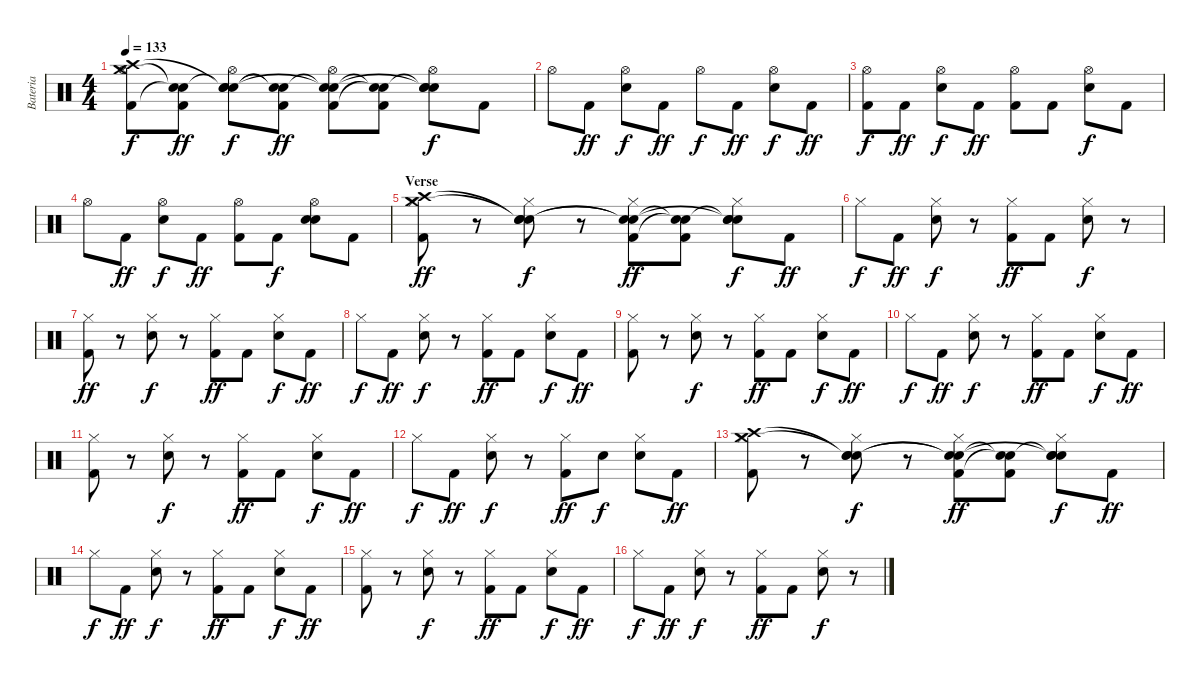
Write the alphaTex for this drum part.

\track ("Bateria" "Bateria") {instrument percussion}
\staff {score}
\articulation defaults
\ts (4 4)
\tempo 133
\clef neutral
\ks c
("Hi-Hat (open)" "Kick (hit) 2" "Crash medium (hit)" "Crash high (hit)").8{dy f} ("Kick (hit) 2" "Snare (hit)"{t} "Snare (hit)"{t}).8{dy ff} ("Hi-Hat (open)" "Snare (hit) 2" "Snare (hit)"{t} "Snare (hit)"{t}).8{dy f} ("Kick (hit) 2" "Snare (hit)"{t} "Snare (hit)"{t}).8{dy ff} ("Hi-Hat (open)" "Kick (hit) 2" "Snare (hit)"{t} "Snare (hit)"{t}).8 ("Kick (hit) 2" "Snare (hit)"{t} "Snare (hit)"{t}).8 ("Hi-Hat (open)" "Snare (hit) 2" "Snare (hit)"{t} "Snare (hit)"{t}).8{dy f} "Kick (hit) 2".8 |
"Hi-Hat (open)".8 "Kick (hit) 2".8{dy ff} ("Hi-Hat (open)" "Snare (hit) 2").8{dy f} "Kick (hit) 2".8{dy ff} "Hi-Hat (open)".8{dy f} "Kick (hit) 2".8{dy ff} ("Hi-Hat (open)" "Snare (hit) 2").8{dy f} "Kick (hit) 2".8{dy ff} |
("Hi-Hat (open)" "Kick (hit) 2").8{dy f} "Kick (hit) 2".8{dy ff} ("Hi-Hat (open)" "Snare (hit) 2").8{dy f} "Kick (hit) 2".8{dy ff} ("Hi-Hat (open)" "Kick (hit) 2").8 "Kick (hit) 2".8 ("Hi-Hat (open)" "Snare (hit) 2").8{dy f} "Kick (hit) 2".8 |
"Hi-Hat (open)".8 "Kick (hit) 2".8{dy ff} ("Hi-Hat (open)" "Snare (hit) 2").8{dy f} "Kick (hit) 2".8{dy ff} ("Hi-Hat (open)" "Kick (hit) 2").8 "Kick (hit) 2".8{dy f} ("Hi-Hat (open)" "Snare (hit) 2" "Snare (hit) 2").8 "Kick (hit) 2".8 |
\section ("" "Verse")
("Hi-Hat (closed)" "Kick (hit) 2" "Crash medium (hit)" "Crash high (hit)").8{dy ff} r.8 ("Hi-Hat (closed)" "Snare (hit) 2" "Snare (hit)"{t} "Snare (hit)"{t}).8{dy f} r.8 ("Hi-Hat (closed)" "Kick (hit) 2" "Snare (hit)"{t} "Snare (hit)"{t}).8{dy ff} ("Kick (hit) 2" "Snare (hit)"{t} "Snare (hit)"{t}).8 ("Hi-Hat (closed)" "Snare (hit) 2" "Snare (hit)"{t} "Snare (hit)"{t}).8{dy f} "Kick (hit) 2".8{dy ff} |
"Hi-Hat (closed)".8{dy f} "Kick (hit) 2".8{dy ff} ("Hi-Hat (closed)" "Snare (hit) 2").8{dy f} r.8 ("Hi-Hat (closed)" "Kick (hit) 2").8{dy ff} "Kick (hit) 2".8 ("Hi-Hat (closed)" "Snare (hit) 2").8{dy f} r.8 |
("Hi-Hat (closed)" "Kick (hit) 2").8{dy ff} r.8 ("Hi-Hat (closed)" "Snare (hit) 2").8{dy f} r.8 ("Hi-Hat (closed)" "Kick (hit) 2").8{dy ff} "Kick (hit) 2".8 ("Hi-Hat (closed)" "Snare (hit) 2").8{dy f} "Kick (hit) 2".8{dy ff} |
"Hi-Hat (closed)".8{dy f} "Kick (hit) 2".8{dy ff} ("Hi-Hat (closed)" "Snare (hit) 2").8{dy f} r.8 ("Hi-Hat (closed)" "Kick (hit) 2").8{dy ff} "Kick (hit) 2".8 ("Hi-Hat (closed)" "Snare (hit) 2").8{dy f} "Kick (hit) 2".8{dy ff} |
("Hi-Hat (closed)" "Kick (hit) 2").8 r.8 ("Hi-Hat (closed)" "Snare (hit) 2").8{dy f} r.8 ("Hi-Hat (closed)" "Kick (hit) 2").8{dy ff} "Kick (hit) 2".8 ("Hi-Hat (closed)" "Snare (hit) 2").8{dy f} "Kick (hit) 2".8{dy ff} |
"Hi-Hat (closed)".8{dy f} "Kick (hit) 2".8{dy ff} ("Hi-Hat (closed)" "Snare (hit) 2").8{dy f} r.8 ("Hi-Hat (closed)" "Kick (hit) 2").8{dy ff} "Kick (hit) 2".8 ("Hi-Hat (closed)" "Snare (hit) 2").8{dy f} "Kick (hit) 2".8{dy ff} |
("Hi-Hat (closed)" "Kick (hit) 2").8 r.8 ("Hi-Hat (closed)" "Snare (hit) 2").8{dy f} r.8 ("Hi-Hat (closed)" "Kick (hit) 2").8{dy ff} "Kick (hit) 2".8 ("Hi-Hat (closed)" "Snare (hit) 2").8{dy f} "Kick (hit) 2".8{dy ff} |
"Hi-Hat (closed)".8{dy f} "Kick (hit) 2".8{dy ff} ("Hi-Hat (closed)" "Snare (hit) 2").8{dy f} r.8 ("Hi-Hat (closed)" "Kick (hit) 2").8{dy ff} "Snare (hit) 2".8{dy f} ("Hi-Hat (closed)" "Snare (hit) 2").8 "Kick (hit) 2".8{dy ff} |
("Hi-Hat (closed)" "Kick (hit) 2" "Crash medium (hit)" "Crash high (hit)").8 r.8 ("Hi-Hat (closed)" "Snare (hit) 2" "Snare (hit)"{t} "Snare (hit)"{t}).8{dy f} r.8 ("Hi-Hat (closed)" "Kick (hit) 2" "Snare (hit)"{t} "Snare (hit)"{t}).8{dy ff} ("Kick (hit) 2" "Snare (hit)"{t} "Snare (hit)"{t}).8 ("Hi-Hat (closed)" "Snare (hit) 2" "Snare (hit)"{t} "Snare (hit)"{t}).8{dy f} "Kick (hit) 2".8{dy ff} |
"Hi-Hat (closed)".8{dy f} "Kick (hit) 2".8{dy ff} ("Hi-Hat (closed)" "Snare (hit) 2").8{dy f} r.8 ("Hi-Hat (closed)" "Kick (hit) 2").8{dy ff} "Kick (hit) 2".8 ("Hi-Hat (closed)" "Snare (hit) 2").8{dy f} "Kick (hit) 2".8{dy ff} |
("Hi-Hat (closed)" "Kick (hit) 2").8 r.8 ("Hi-Hat (closed)" "Snare (hit) 2").8{dy f} r.8 ("Hi-Hat (closed)" "Kick (hit) 2").8{dy ff} "Kick (hit) 2".8 ("Hi-Hat (closed)" "Snare (hit) 2").8{dy f} "Kick (hit) 2".8{dy ff} |
"Hi-Hat (closed)".8{dy f} "Kick (hit) 2".8{dy ff} ("Hi-Hat (closed)" "Snare (hit) 2").8{dy f} r.8 ("Hi-Hat (closed)" "Kick (hit) 2").8{dy ff} "Kick (hit) 2".8 ("Hi-Hat (closed)" "Snare (hit) 2").8{dy f} r.8
